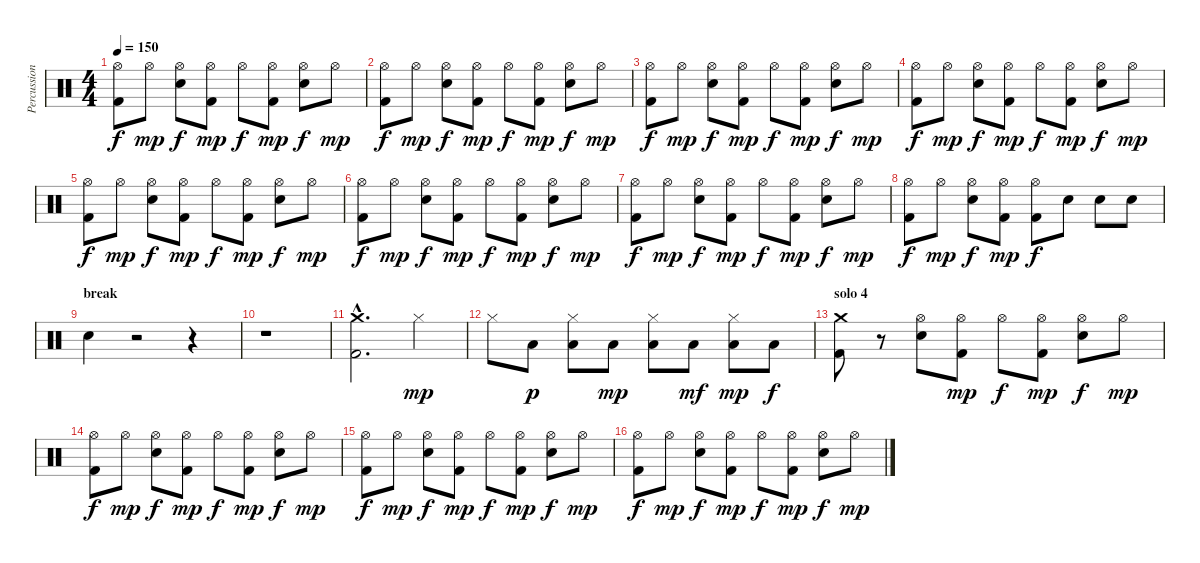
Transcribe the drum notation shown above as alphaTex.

\track ("Percussions" "Percussion") {instrument percussion}
\staff {score}
\articulation defaults
\ts (4 4)
\tempo 150
\clef neutral
\ks c
("Hi-Hat (open)" "Kick (hit) 2").8{dy f} "Hi-Hat (open)".8{dy mp} ("Hi-Hat (open)" "Electric Snare (hit)").8{dy f} ("Hi-Hat (open)" "Kick (hit) 2").8{dy mp} "Hi-Hat (open)".8{dy f} ("Hi-Hat (open)" "Kick (hit) 2").8{dy mp} ("Hi-Hat (open)" "Electric Snare (hit)").8{dy f} "Hi-Hat (open)".8{dy mp} |
("Hi-Hat (open)" "Kick (hit) 2").8{dy f} "Hi-Hat (open)".8{dy mp} ("Hi-Hat (open)" "Electric Snare (hit)").8{dy f} ("Hi-Hat (open)" "Kick (hit) 2").8{dy mp} "Hi-Hat (open)".8{dy f} ("Hi-Hat (open)" "Kick (hit) 2").8{dy mp} ("Hi-Hat (open)" "Electric Snare (hit)").8{dy f} "Hi-Hat (open)".8{dy mp} |
("Hi-Hat (open)" "Kick (hit) 2").8{dy f} "Hi-Hat (open)".8{dy mp} ("Hi-Hat (open)" "Electric Snare (hit)").8{dy f} ("Hi-Hat (open)" "Kick (hit) 2").8{dy mp} "Hi-Hat (open)".8{dy f} ("Hi-Hat (open)" "Kick (hit) 2").8{dy mp} ("Hi-Hat (open)" "Electric Snare (hit)").8{dy f} "Hi-Hat (open)".8{dy mp} |
("Hi-Hat (open)" "Kick (hit) 2").8{dy f} "Hi-Hat (open)".8{dy mp} ("Hi-Hat (open)" "Electric Snare (hit)").8{dy f} ("Hi-Hat (open)" "Kick (hit) 2").8{dy mp} "Hi-Hat (open)".8{dy f} ("Hi-Hat (open)" "Kick (hit) 2").8{dy mp} ("Hi-Hat (open)" "Electric Snare (hit)").8{dy f} "Hi-Hat (open)".8{dy mp} |
("Hi-Hat (open)" "Kick (hit) 2").8{dy f} "Hi-Hat (open)".8{dy mp} ("Hi-Hat (open)" "Electric Snare (hit)").8{dy f} ("Hi-Hat (open)" "Kick (hit) 2").8{dy mp} "Hi-Hat (open)".8{dy f} ("Hi-Hat (open)" "Kick (hit) 2").8{dy mp} ("Hi-Hat (open)" "Electric Snare (hit)").8{dy f} "Hi-Hat (open)".8{dy mp} |
("Hi-Hat (open)" "Kick (hit) 2").8{dy f} "Hi-Hat (open)".8{dy mp} ("Hi-Hat (open)" "Electric Snare (hit)").8{dy f} ("Hi-Hat (open)" "Kick (hit) 2").8{dy mp} "Hi-Hat (open)".8{dy f} ("Hi-Hat (open)" "Kick (hit) 2").8{dy mp} ("Hi-Hat (open)" "Electric Snare (hit)").8{dy f} "Hi-Hat (open)".8{dy mp} |
("Hi-Hat (open)" "Kick (hit) 2").8{dy f} "Hi-Hat (open)".8{dy mp} ("Hi-Hat (open)" "Electric Snare (hit)").8{dy f} ("Hi-Hat (open)" "Kick (hit) 2").8{dy mp} "Hi-Hat (open)".8{dy f} ("Hi-Hat (open)" "Kick (hit) 2").8{dy mp} ("Hi-Hat (open)" "Electric Snare (hit)").8{dy f} "Hi-Hat (open)".8{dy mp} |
("Hi-Hat (open)" "Kick (hit) 2").8{dy f} "Hi-Hat (open)".8{dy mp} ("Hi-Hat (open)" "Electric Snare (hit)").8{dy f} ("Hi-Hat (open)" "Kick (hit) 2").8{dy mp} ("Hi-Hat (open)" "Kick (hit) 2").8{dy f} "Electric Snare (hit)".8 "Electric Snare (hit)".8 "Electric Snare (hit)".8 |
\section ("" "break")
"Electric Snare (hit)".4 r.2 r.4 |
r.1 |
("Crash medium (hit)"{hac} "Kick (hit) 2"{hac}).2{d} "Hi-Hat (closed)".4{dy mp} |
"Hi-Hat (closed)".8 "Low Tom (hit)".8{dy p} ("Hi-Hat (closed)" "Low Tom (hit)").8 "Low Tom (hit)".8{dy mp} ("Hi-Hat (closed)" "Low Tom (hit)").8 "Low Tom (hit)".8{dy mf} ("Hi-Hat (closed)" "Low Tom (hit)").8{dy mp} "Low Tom (hit)".8{dy f} |
\section ("" "solo 4")
("Crash medium (hit)" "Kick (hit) 2").8 r.8 ("Hi-Hat (open)" "Electric Snare (hit)").8 ("Hi-Hat (open)" "Kick (hit) 2").8{dy mp} "Hi-Hat (open)".8{dy f} ("Hi-Hat (open)" "Kick (hit) 2").8{dy mp} ("Hi-Hat (open)" "Electric Snare (hit)").8{dy f} "Hi-Hat (open)".8{dy mp} |
("Hi-Hat (open)" "Kick (hit) 2").8{dy f} "Hi-Hat (open)".8{dy mp} ("Hi-Hat (open)" "Electric Snare (hit)").8{dy f} ("Hi-Hat (open)" "Kick (hit) 2").8{dy mp} "Hi-Hat (open)".8{dy f} ("Hi-Hat (open)" "Kick (hit) 2").8{dy mp} ("Hi-Hat (open)" "Electric Snare (hit)").8{dy f} "Hi-Hat (open)".8{dy mp} |
("Hi-Hat (open)" "Kick (hit) 2").8{dy f} "Hi-Hat (open)".8{dy mp} ("Hi-Hat (open)" "Electric Snare (hit)").8{dy f} ("Hi-Hat (open)" "Kick (hit) 2").8{dy mp} "Hi-Hat (open)".8{dy f} ("Hi-Hat (open)" "Kick (hit) 2").8{dy mp} ("Hi-Hat (open)" "Electric Snare (hit)").8{dy f} "Hi-Hat (open)".8{dy mp} |
("Hi-Hat (open)" "Kick (hit) 2").8{dy f} "Hi-Hat (open)".8{dy mp} ("Hi-Hat (open)" "Electric Snare (hit)").8{dy f} ("Hi-Hat (open)" "Kick (hit) 2").8{dy mp} "Hi-Hat (open)".8{dy f} ("Hi-Hat (open)" "Kick (hit) 2").8{dy mp} ("Hi-Hat (open)" "Electric Snare (hit)").8{dy f} "Hi-Hat (open)".8{dy mp}
